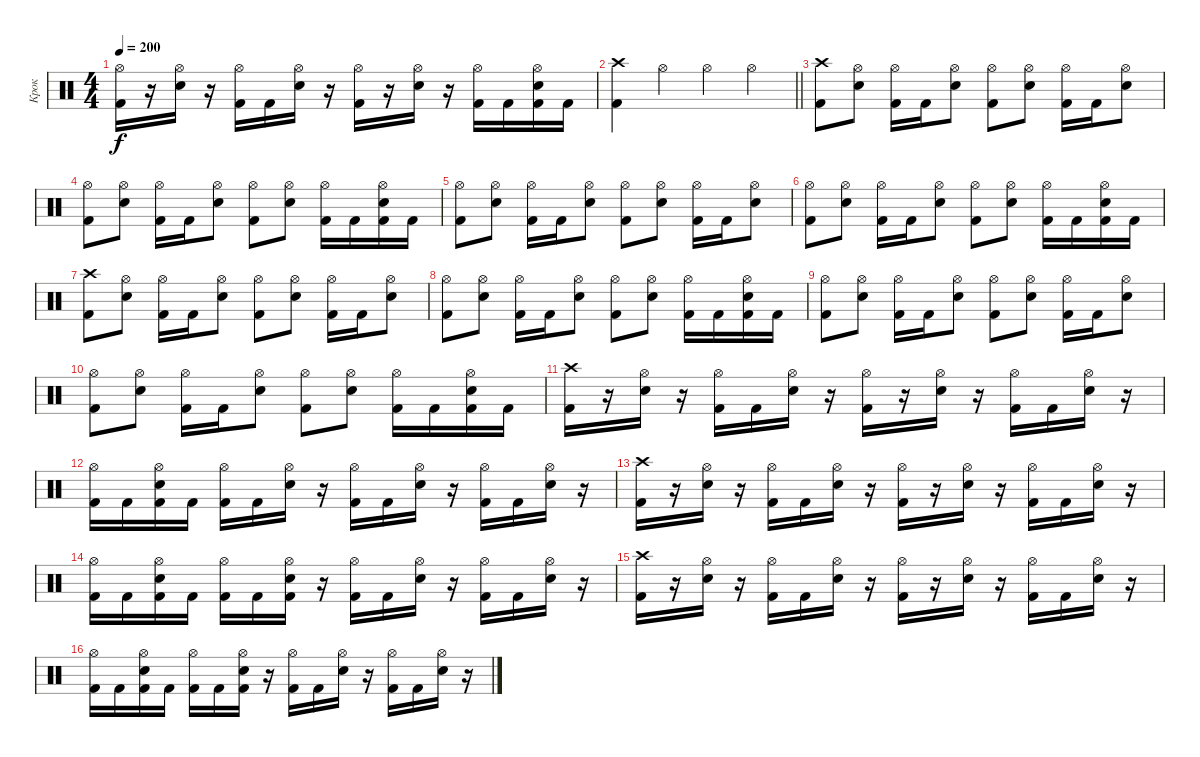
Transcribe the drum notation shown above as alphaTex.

\track ("Крок" "Крок") {instrument percussion}
\staff {score}
\articulation defaults
\ts (4 4)
\tempo 200
\clef neutral
\ks c
("Kick (hit) 2" "Hi-Hat (open)").16{dy f} r.16 ("Electric Snare (hit)" "Hi-Hat (open)").16 r.16 ("Kick (hit) 2" "Hi-Hat (open)").16 "Kick (hit) 2".16 ("Electric Snare (hit)" "Hi-Hat (open)").16 r.16 ("Kick (hit) 2" "Hi-Hat (open)").16 r.16 ("Electric Snare (hit)" "Hi-Hat (open)").16 r.16 ("Kick (hit) 2" "Hi-Hat (open)").16 "Kick (hit) 2".16 ("Kick (hit) 2" "Electric Snare (hit)" "Hi-Hat (open)").16 "Kick (hit) 2".16 |
\barLineRight lightlight
("Kick (hit) 2" "Crash high (hit)").4 "Hi-Hat (open)".4 "Hi-Hat (open)".4 "Hi-Hat (open)".4 |
("Crash high (hit)" "Kick (hit) 2").8 ("Hi-Hat (open)" "Electric Snare (hit)").8 ("Hi-Hat (open)" "Kick (hit) 2").16 "Kick (hit) 2".16 ("Hi-Hat (open)" "Electric Snare (hit)").8 ("Hi-Hat (open)" "Kick (hit) 2").8 ("Hi-Hat (open)" "Electric Snare (hit)").8 ("Hi-Hat (open)" "Kick (hit) 2").16 "Kick (hit) 2".16 ("Hi-Hat (open)" "Electric Snare (hit)").8 |
("Hi-Hat (open)" "Kick (hit) 2").8 ("Hi-Hat (open)" "Electric Snare (hit)").8 ("Hi-Hat (open)" "Kick (hit) 2").16 "Kick (hit) 2".16 ("Hi-Hat (open)" "Electric Snare (hit)").8 ("Hi-Hat (open)" "Kick (hit) 2").8 ("Hi-Hat (open)" "Electric Snare (hit)").8 ("Hi-Hat (open)" "Kick (hit) 2").16 "Kick (hit) 2".16 ("Hi-Hat (open)" "Kick (hit) 2" "Electric Snare (hit)").16 "Kick (hit) 2".16 |
("Hi-Hat (open)" "Kick (hit) 2").8 ("Hi-Hat (open)" "Electric Snare (hit)").8 ("Hi-Hat (open)" "Kick (hit) 2").16 "Kick (hit) 2".16 ("Hi-Hat (open)" "Electric Snare (hit)").8 ("Hi-Hat (open)" "Kick (hit) 2").8 ("Hi-Hat (open)" "Electric Snare (hit)").8 ("Hi-Hat (open)" "Kick (hit) 2").16 "Kick (hit) 2".16 ("Hi-Hat (open)" "Electric Snare (hit)").8 |
("Hi-Hat (open)" "Kick (hit) 2").8 ("Hi-Hat (open)" "Electric Snare (hit)").8 ("Hi-Hat (open)" "Kick (hit) 2").16 "Kick (hit) 2".16 ("Hi-Hat (open)" "Electric Snare (hit)").8 ("Hi-Hat (open)" "Kick (hit) 2").8 ("Hi-Hat (open)" "Electric Snare (hit)").8 ("Hi-Hat (open)" "Kick (hit) 2").16 "Kick (hit) 2".16 ("Hi-Hat (open)" "Kick (hit) 2" "Electric Snare (hit)").16 "Kick (hit) 2".16 |
("Crash high (hit)" "Kick (hit) 2").8 ("Hi-Hat (open)" "Electric Snare (hit)").8 ("Hi-Hat (open)" "Kick (hit) 2").16 "Kick (hit) 2".16 ("Hi-Hat (open)" "Electric Snare (hit)").8 ("Hi-Hat (open)" "Kick (hit) 2").8 ("Hi-Hat (open)" "Electric Snare (hit)").8 ("Hi-Hat (open)" "Kick (hit) 2").16 "Kick (hit) 2".16 ("Hi-Hat (open)" "Electric Snare (hit)").8 |
("Hi-Hat (open)" "Kick (hit) 2").8 ("Hi-Hat (open)" "Electric Snare (hit)").8 ("Hi-Hat (open)" "Kick (hit) 2").16 "Kick (hit) 2".16 ("Hi-Hat (open)" "Electric Snare (hit)").8 ("Hi-Hat (open)" "Kick (hit) 2").8 ("Hi-Hat (open)" "Electric Snare (hit)").8 ("Hi-Hat (open)" "Kick (hit) 2").16 "Kick (hit) 2".16 ("Hi-Hat (open)" "Kick (hit) 2" "Electric Snare (hit)").16 "Kick (hit) 2".16 |
("Hi-Hat (open)" "Kick (hit) 2").8 ("Hi-Hat (open)" "Electric Snare (hit)").8 ("Hi-Hat (open)" "Kick (hit) 2").16 "Kick (hit) 2".16 ("Hi-Hat (open)" "Electric Snare (hit)").8 ("Hi-Hat (open)" "Kick (hit) 2").8 ("Hi-Hat (open)" "Electric Snare (hit)").8 ("Hi-Hat (open)" "Kick (hit) 2").16 "Kick (hit) 2".16 ("Hi-Hat (open)" "Electric Snare (hit)").8 |
("Hi-Hat (open)" "Kick (hit) 2").8 ("Hi-Hat (open)" "Electric Snare (hit)").8 ("Hi-Hat (open)" "Kick (hit) 2").16 "Kick (hit) 2".16 ("Hi-Hat (open)" "Electric Snare (hit)").8 ("Hi-Hat (open)" "Kick (hit) 2").8 ("Hi-Hat (open)" "Electric Snare (hit)").8 ("Hi-Hat (open)" "Kick (hit) 2").16 "Kick (hit) 2".16 ("Hi-Hat (open)" "Kick (hit) 2" "Electric Snare (hit)").16 "Kick (hit) 2".16 |
("Kick (hit) 2" "Crash high (hit)").16 r.16 ("Electric Snare (hit)" "Hi-Hat (open)").16 r.16 ("Kick (hit) 2" "Hi-Hat (open)").16 "Kick (hit) 2".16 ("Electric Snare (hit)" "Hi-Hat (open)").16 r.16 ("Kick (hit) 2" "Hi-Hat (open)").16 r.16 ("Electric Snare (hit)" "Hi-Hat (open)").16 r.16 ("Kick (hit) 2" "Hi-Hat (open)").16 "Kick (hit) 2".16 ("Electric Snare (hit)" "Hi-Hat (open)").16 r.16 |
("Kick (hit) 2" "Hi-Hat (open)").16 "Kick (hit) 2".16 ("Kick (hit) 2" "Electric Snare (hit)" "Hi-Hat (open)").16 "Kick (hit) 2".16 ("Kick (hit) 2" "Hi-Hat (open)").16 "Kick (hit) 2".16 ("Electric Snare (hit)" "Hi-Hat (open)").16 r.16 ("Kick (hit) 2" "Hi-Hat (open)").16 "Kick (hit) 2".16 ("Electric Snare (hit)" "Hi-Hat (open)").16 r.16 ("Kick (hit) 2" "Hi-Hat (open)").16 "Kick (hit) 2".16 ("Electric Snare (hit)" "Hi-Hat (open)").16 r.16 |
("Kick (hit) 2" "Crash high (hit)").16 r.16 ("Electric Snare (hit)" "Hi-Hat (open)").16 r.16 ("Kick (hit) 2" "Hi-Hat (open)").16 "Kick (hit) 2".16 ("Electric Snare (hit)" "Hi-Hat (open)").16 r.16 ("Kick (hit) 2" "Hi-Hat (open)").16 r.16 ("Electric Snare (hit)" "Hi-Hat (open)").16 r.16 ("Kick (hit) 2" "Hi-Hat (open)").16 "Kick (hit) 2".16 ("Electric Snare (hit)" "Hi-Hat (open)").16 r.16 |
("Kick (hit) 2" "Hi-Hat (open)").16 "Kick (hit) 2".16 ("Kick (hit) 2" "Electric Snare (hit)" "Hi-Hat (open)").16 "Kick (hit) 2".16 ("Kick (hit) 2" "Hi-Hat (open)").16 "Kick (hit) 2".16 ("Kick (hit) 2" "Electric Snare (hit)" "Hi-Hat (open)").16 r.16 ("Kick (hit) 2" "Hi-Hat (open)").16 "Kick (hit) 2".16 ("Electric Snare (hit)" "Hi-Hat (open)").16 r.16 ("Kick (hit) 2" "Hi-Hat (open)").16 "Kick (hit) 2".16 ("Electric Snare (hit)" "Hi-Hat (open)").16 r.16 |
("Kick (hit) 2" "Crash high (hit)").16 r.16 ("Electric Snare (hit)" "Hi-Hat (open)").16 r.16 ("Kick (hit) 2" "Hi-Hat (open)").16 "Kick (hit) 2".16 ("Electric Snare (hit)" "Hi-Hat (open)").16 r.16 ("Kick (hit) 2" "Hi-Hat (open)").16 r.16 ("Electric Snare (hit)" "Hi-Hat (open)").16 r.16 ("Kick (hit) 2" "Hi-Hat (open)").16 "Kick (hit) 2".16 ("Electric Snare (hit)" "Hi-Hat (open)").16 r.16 |
("Kick (hit) 2" "Hi-Hat (open)").16 "Kick (hit) 2".16 ("Kick (hit) 2" "Electric Snare (hit)" "Hi-Hat (open)").16 "Kick (hit) 2".16 ("Kick (hit) 2" "Hi-Hat (open)").16 "Kick (hit) 2".16 ("Kick (hit) 2" "Electric Snare (hit)" "Hi-Hat (open)").16 r.16 ("Kick (hit) 2" "Hi-Hat (open)").16 "Kick (hit) 2".16 ("Electric Snare (hit)" "Hi-Hat (open)").16 r.16 ("Kick (hit) 2" "Hi-Hat (open)").16 "Kick (hit) 2".16 ("Electric Snare (hit)" "Hi-Hat (open)").16 r.16
